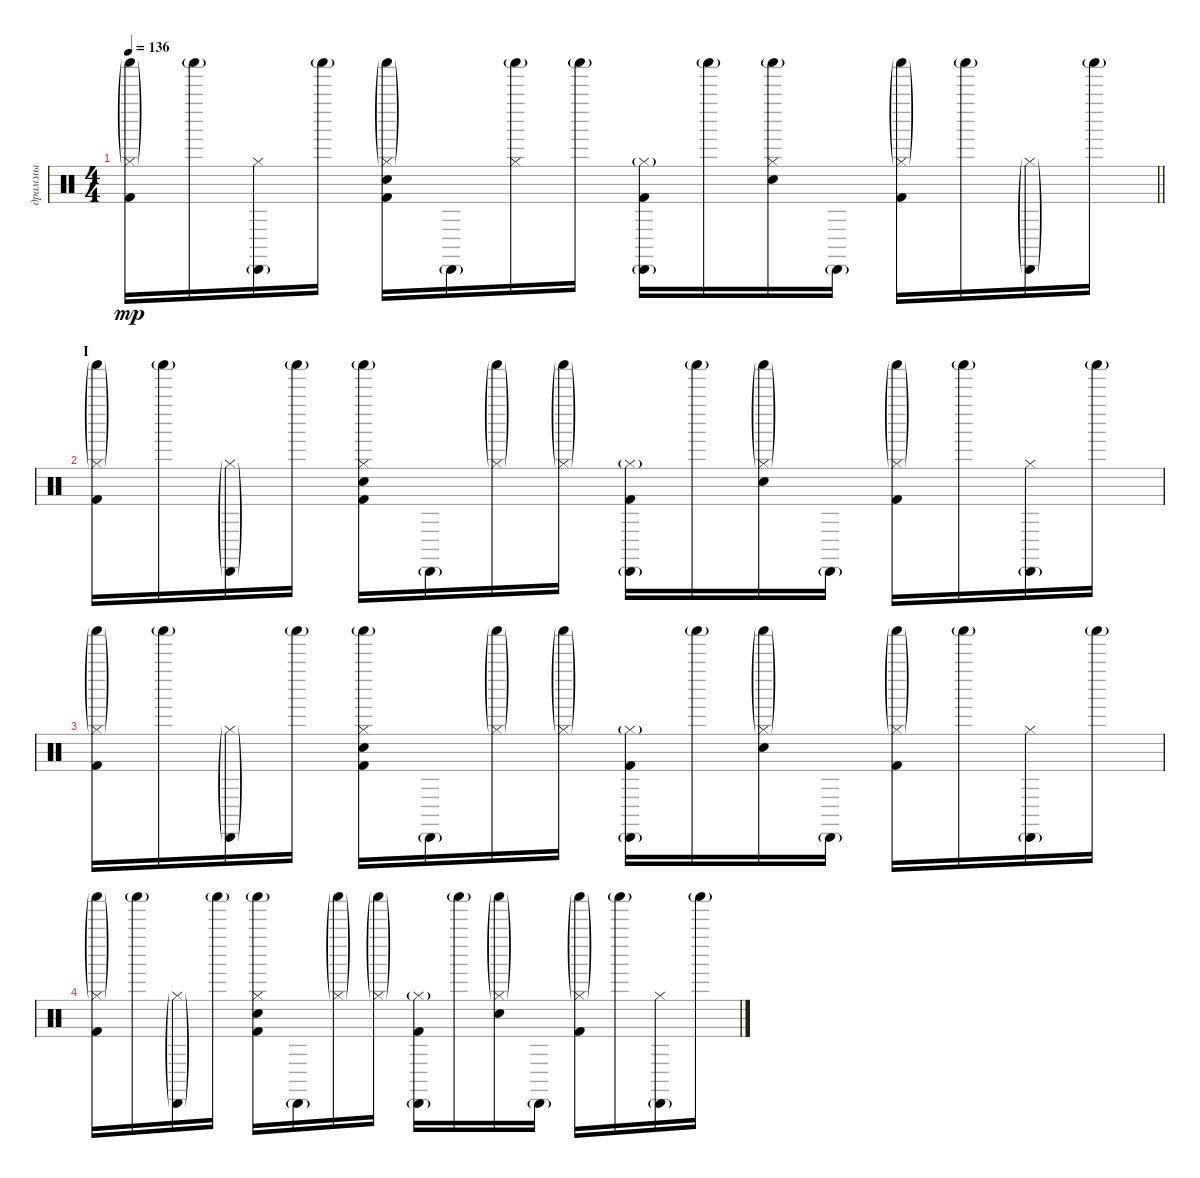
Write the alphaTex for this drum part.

\track ("драммы" "драммы") {instrument percussion}
\staff {score}
\articulation defaults
\ts (4 4)
\tempo 136
\clef neutral
\barLineRight lightlight
\ks c
("Shaker (hit)"{g} "Kick (hit) 2" "Hi-Hat (closed)"{g}).16{dy mp} "Shaker (hit)"{g}.16 ("Cabasa (hit)"{g} "Hi-Hat (closed)").16 "Shaker (hit)"{g}.16 ("Shaker (hit)"{g} "Snare (hit) 2" "Kick (hit) 2" "Hi-Hat (closed)"{g}).16 "Cabasa (hit)"{g}.16 ("Shaker (hit)"{g} "Hi-Hat (closed)").16 "Shaker (hit)"{g}.16 ("Cabasa (hit)"{g} "Kick (hit) 2" "Hi-Hat (closed)"{g}).16 "Shaker (hit)"{g}.16 ("Shaker (hit)"{g} "Snare (hit) 2" "Hi-Hat (closed)").16 "Cabasa (hit)"{g}.16 ("Shaker (hit)"{g} "Kick (hit) 2" "Hi-Hat (closed)"{g}).16 "Shaker (hit)"{g}.16 ("Cabasa (hit)"{g} "Hi-Hat (closed)"{g}).16 "Shaker (hit)"{g}.16 |
\section ("" "I")
("Shaker (hit)"{g} "Kick (hit) 2" "Hi-Hat (closed)"{g}).16 "Shaker (hit)"{g}.16 ("Cabasa (hit)"{g} "Hi-Hat (closed)"{g}).16 "Shaker (hit)"{g}.16 ("Shaker (hit)"{g} "Snare (hit) 2" "Kick (hit) 2" "Hi-Hat (closed)").16 "Cabasa (hit)"{g}.16 ("Shaker (hit)"{g} "Hi-Hat (closed)"{g}).16 ("Shaker (hit)"{g} "Hi-Hat (closed)"{g}).16 ("Cabasa (hit)"{g} "Kick (hit) 2" "Hi-Hat (closed)"{g}).16 "Shaker (hit)"{g}.16 ("Shaker (hit)"{g} "Snare (hit) 2" "Hi-Hat (closed)"{g}).16 "Cabasa (hit)"{g}.16 ("Shaker (hit)"{g} "Kick (hit) 2" "Hi-Hat (closed)"{g}).16 "Shaker (hit)"{g}.16 ("Cabasa (hit)"{g} "Hi-Hat (closed)").16 "Shaker (hit)"{g}.16 |
("Shaker (hit)"{g} "Kick (hit) 2" "Hi-Hat (closed)"{g}).16 "Shaker (hit)"{g}.16 ("Cabasa (hit)"{g} "Hi-Hat (closed)"{g}).16 "Shaker (hit)"{g}.16 ("Shaker (hit)"{g} "Snare (hit) 2" "Kick (hit) 2" "Hi-Hat (closed)").16 "Cabasa (hit)"{g}.16 ("Shaker (hit)"{g} "Hi-Hat (closed)"{g}).16 ("Shaker (hit)"{g} "Hi-Hat (closed)"{g}).16 ("Cabasa (hit)"{g} "Kick (hit) 2" "Hi-Hat (closed)"{g}).16 "Shaker (hit)"{g}.16 ("Shaker (hit)"{g} "Snare (hit) 2" "Hi-Hat (closed)"{g}).16 "Cabasa (hit)"{g}.16 ("Shaker (hit)"{g} "Kick (hit) 2" "Hi-Hat (closed)"{g}).16 "Shaker (hit)"{g}.16 ("Cabasa (hit)"{g} "Hi-Hat (closed)").16 "Shaker (hit)"{g}.16 |
("Shaker (hit)"{g} "Kick (hit) 2" "Hi-Hat (closed)"{g}).16 "Shaker (hit)"{g}.16 ("Cabasa (hit)"{g} "Hi-Hat (closed)"{g}).16 "Shaker (hit)"{g}.16 ("Shaker (hit)"{g} "Snare (hit) 2" "Kick (hit) 2" "Hi-Hat (closed)").16 "Cabasa (hit)"{g}.16 ("Shaker (hit)"{g} "Hi-Hat (closed)"{g}).16 ("Shaker (hit)"{g} "Hi-Hat (closed)"{g}).16 ("Cabasa (hit)"{g} "Kick (hit) 2" "Hi-Hat (closed)"{g}).16 "Shaker (hit)"{g}.16 ("Shaker (hit)"{g} "Snare (hit) 2" "Hi-Hat (closed)"{g}).16 "Cabasa (hit)"{g}.16 ("Shaker (hit)"{g} "Kick (hit) 2" "Hi-Hat (closed)"{g}).16 "Shaker (hit)"{g}.16 ("Cabasa (hit)"{g} "Hi-Hat (closed)").16 "Shaker (hit)"{g}.16
